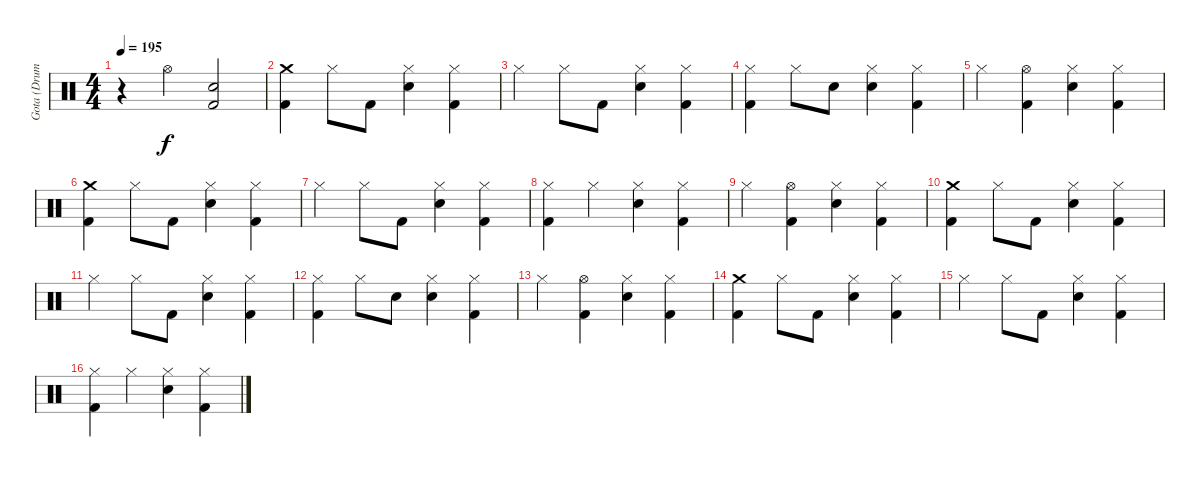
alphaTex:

\track ("Gota (Drums)" "Gota (Drum") {instrument percussion}
\staff {score}
\articulation defaults
\ts (4 4)
\tempo 195
\clef neutral
\ks c
r.4{dy f} "Hi-Hat (open)".4 ("Electric Snare (hit)" "Kick (hit) 2").2 |
("Crash medium (hit)" "Kick (hit) 2").4 "Hi-Hat (closed)".8 "Kick (hit) 2".8 ("Hi-Hat (closed)" "Electric Snare (hit)").4 ("Hi-Hat (closed)" "Kick (hit) 2").4 |
"Hi-Hat (closed)".4 "Hi-Hat (closed)".8 "Kick (hit) 2".8 ("Hi-Hat (closed)" "Electric Snare (hit)").4 ("Hi-Hat (closed)" "Kick (hit) 2").4 |
("Hi-Hat (closed)" "Kick (hit) 2").4 "Hi-Hat (closed)".8 "Electric Snare (hit)".8 ("Hi-Hat (closed)" "Electric Snare (hit)").4 ("Hi-Hat (closed)" "Kick (hit) 2").4 |
"Hi-Hat (closed)".4 ("Hi-Hat (open)" "Kick (hit) 2").4 ("Hi-Hat (closed)" "Electric Snare (hit)").4 ("Hi-Hat (closed)" "Kick (hit) 2").4 |
("Crash medium (hit)" "Kick (hit) 2").4 "Hi-Hat (closed)".8 "Kick (hit) 2".8 ("Hi-Hat (closed)" "Electric Snare (hit)").4 ("Hi-Hat (closed)" "Kick (hit) 2").4 |
"Hi-Hat (closed)".4 "Hi-Hat (closed)".8 "Kick (hit) 2".8 ("Hi-Hat (closed)" "Electric Snare (hit)").4 ("Hi-Hat (closed)" "Kick (hit) 2").4 |
("Hi-Hat (closed)" "Kick (hit) 2").4 "Hi-Hat (closed)".4 ("Hi-Hat (closed)" "Electric Snare (hit)").4 ("Hi-Hat (closed)" "Kick (hit) 2").4 |
"Hi-Hat (closed)".4 ("Hi-Hat (open)" "Kick (hit) 2").4 ("Hi-Hat (closed)" "Electric Snare (hit)").4 ("Hi-Hat (closed)" "Kick (hit) 2").4 |
("Crash medium (hit)" "Kick (hit) 2").4 "Hi-Hat (closed)".8 "Kick (hit) 2".8 ("Hi-Hat (closed)" "Electric Snare (hit)").4 ("Hi-Hat (closed)" "Kick (hit) 2").4 |
"Hi-Hat (closed)".4 "Hi-Hat (closed)".8 "Kick (hit) 2".8 ("Hi-Hat (closed)" "Electric Snare (hit)").4 ("Hi-Hat (closed)" "Kick (hit) 2").4 |
("Hi-Hat (closed)" "Kick (hit) 2").4 "Hi-Hat (closed)".8 "Electric Snare (hit)".8 ("Hi-Hat (closed)" "Electric Snare (hit)").4 ("Hi-Hat (closed)" "Kick (hit) 2").4 |
"Hi-Hat (closed)".4 ("Hi-Hat (open)" "Kick (hit) 2").4 ("Hi-Hat (closed)" "Electric Snare (hit)").4 ("Hi-Hat (closed)" "Kick (hit) 2").4 |
("Crash medium (hit)" "Kick (hit) 2").4 "Hi-Hat (closed)".8 "Kick (hit) 2".8 ("Hi-Hat (closed)" "Electric Snare (hit)").4 ("Hi-Hat (closed)" "Kick (hit) 2").4 |
"Hi-Hat (closed)".4 "Hi-Hat (closed)".8 "Kick (hit) 2".8 ("Hi-Hat (closed)" "Electric Snare (hit)").4 ("Hi-Hat (closed)" "Kick (hit) 2").4 |
("Hi-Hat (closed)" "Kick (hit) 2").4 "Hi-Hat (closed)".4 ("Hi-Hat (closed)" "Electric Snare (hit)").4 ("Hi-Hat (closed)" "Kick (hit) 2").4
